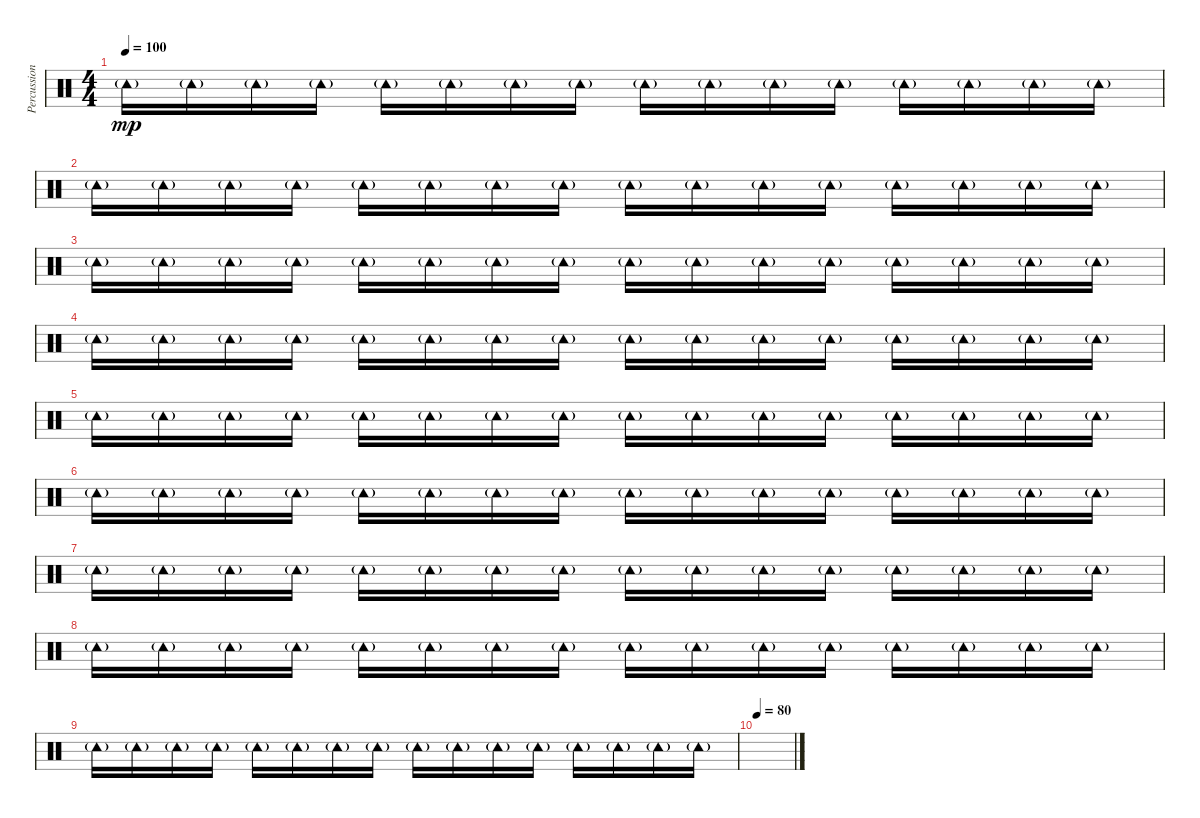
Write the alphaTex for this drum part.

\track ("Percussion" "Percussion") {instrument percussion}
\staff {score}
\articulation defaults
\ts (4 4)
\tempo 100
\clef neutral
\ks c "Tambourine (hit)"{g}.16{dy mp} "Tambourine (hit)"{g}.16 "Tambourine (hit)"{g}.16 "Tambourine (hit)"{g}.16 "Tambourine (hit)"{g}.16 "Tambourine (hit)"{g}.16 "Tambourine (hit)"{g}.16 "Tambourine (hit)"{g}.16 "Tambourine (hit)"{g}.16 "Tambourine (hit)"{g}.16 "Tambourine (hit)"{g}.16 "Tambourine (hit)"{g}.16 "Tambourine (hit)"{g}.16 "Tambourine (hit)"{g}.16 "Tambourine (hit)"{g}.16 "Tambourine (hit)"{g}.16
|
"Tambourine (hit)"{g}.16 "Tambourine (hit)"{g}.16 "Tambourine (hit)"{g}.16 "Tambourine (hit)"{g}.16 "Tambourine (hit)"{g}.16 "Tambourine (hit)"{g}.16 "Tambourine (hit)"{g}.16 "Tambourine (hit)"{g}.16 "Tambourine (hit)"{g}.16 "Tambourine (hit)"{g}.16 "Tambourine (hit)"{g}.16 "Tambourine (hit)"{g}.16 "Tambourine (hit)"{g}.16 "Tambourine (hit)"{g}.16 "Tambourine (hit)"{g}.16 "Tambourine (hit)"{g}.16 |
"Tambourine (hit)"{g}.16 "Tambourine (hit)"{g}.16 "Tambourine (hit)"{g}.16 "Tambourine (hit)"{g}.16 "Tambourine (hit)"{g}.16 "Tambourine (hit)"{g}.16 "Tambourine (hit)"{g}.16 "Tambourine (hit)"{g}.16 "Tambourine (hit)"{g}.16 "Tambourine (hit)"{g}.16 "Tambourine (hit)"{g}.16 "Tambourine (hit)"{g}.16 "Tambourine (hit)"{g}.16 "Tambourine (hit)"{g}.16 "Tambourine (hit)"{g}.16 "Tambourine (hit)"{g}.16 |
"Tambourine (hit)"{g}.16 "Tambourine (hit)"{g}.16 "Tambourine (hit)"{g}.16 "Tambourine (hit)"{g}.16 "Tambourine (hit)"{g}.16 "Tambourine (hit)"{g}.16 "Tambourine (hit)"{g}.16 "Tambourine (hit)"{g}.16 "Tambourine (hit)"{g}.16 "Tambourine (hit)"{g}.16 "Tambourine (hit)"{g}.16 "Tambourine (hit)"{g}.16 "Tambourine (hit)"{g}.16 "Tambourine (hit)"{g}.16 "Tambourine (hit)"{g}.16 "Tambourine (hit)"{g}.16 |
"Tambourine (hit)"{g}.16 "Tambourine (hit)"{g}.16 "Tambourine (hit)"{g}.16 "Tambourine (hit)"{g}.16 "Tambourine (hit)"{g}.16 "Tambourine (hit)"{g}.16 "Tambourine (hit)"{g}.16 "Tambourine (hit)"{g}.16 "Tambourine (hit)"{g}.16 "Tambourine (hit)"{g}.16 "Tambourine (hit)"{g}.16 "Tambourine (hit)"{g}.16 "Tambourine (hit)"{g}.16 "Tambourine (hit)"{g}.16 "Tambourine (hit)"{g}.16 "Tambourine (hit)"{g}.16 |
"Tambourine (hit)"{g}.16 "Tambourine (hit)"{g}.16 "Tambourine (hit)"{g}.16 "Tambourine (hit)"{g}.16 "Tambourine (hit)"{g}.16 "Tambourine (hit)"{g}.16 "Tambourine (hit)"{g}.16 "Tambourine (hit)"{g}.16 "Tambourine (hit)"{g}.16 "Tambourine (hit)"{g}.16 "Tambourine (hit)"{g}.16 "Tambourine (hit)"{g}.16 "Tambourine (hit)"{g}.16 "Tambourine (hit)"{g}.16 "Tambourine (hit)"{g}.16 "Tambourine (hit)"{g}.16 |
"Tambourine (hit)"{g}.16 "Tambourine (hit)"{g}.16 "Tambourine (hit)"{g}.16 "Tambourine (hit)"{g}.16 "Tambourine (hit)"{g}.16 "Tambourine (hit)"{g}.16 "Tambourine (hit)"{g}.16 "Tambourine (hit)"{g}.16 "Tambourine (hit)"{g}.16 "Tambourine (hit)"{g}.16 "Tambourine (hit)"{g}.16 "Tambourine (hit)"{g}.16 "Tambourine (hit)"{g}.16 "Tambourine (hit)"{g}.16 "Tambourine (hit)"{g}.16 "Tambourine (hit)"{g}.16 |
"Tambourine (hit)"{g}.16 "Tambourine (hit)"{g}.16 "Tambourine (hit)"{g}.16 "Tambourine (hit)"{g}.16 "Tambourine (hit)"{g}.16 "Tambourine (hit)"{g}.16 "Tambourine (hit)"{g}.16 "Tambourine (hit)"{g}.16 "Tambourine (hit)"{g}.16 "Tambourine (hit)"{g}.16 "Tambourine (hit)"{g}.16 "Tambourine (hit)"{g}.16 "Tambourine (hit)"{g}.16 "Tambourine (hit)"{g}.16 "Tambourine (hit)"{g}.16 "Tambourine (hit)"{g}.16 |
"Tambourine (hit)"{g}.16 "Tambourine (hit)"{g}.16 "Tambourine (hit)"{g}.16 "Tambourine (hit)"{g}.16 "Tambourine (hit)"{g}.16 "Tambourine (hit)"{g}.16 "Tambourine (hit)"{g}.16 "Tambourine (hit)"{g}.16 "Tambourine (hit)"{g}.16 "Tambourine (hit)"{g}.16 "Tambourine (hit)"{g}.16 "Tambourine (hit)"{g}.16 "Tambourine (hit)"{g}.16 "Tambourine (hit)"{g}.16 "Tambourine (hit)"{g}.16 "Tambourine (hit)"{g}.16 |
\tempo 80
